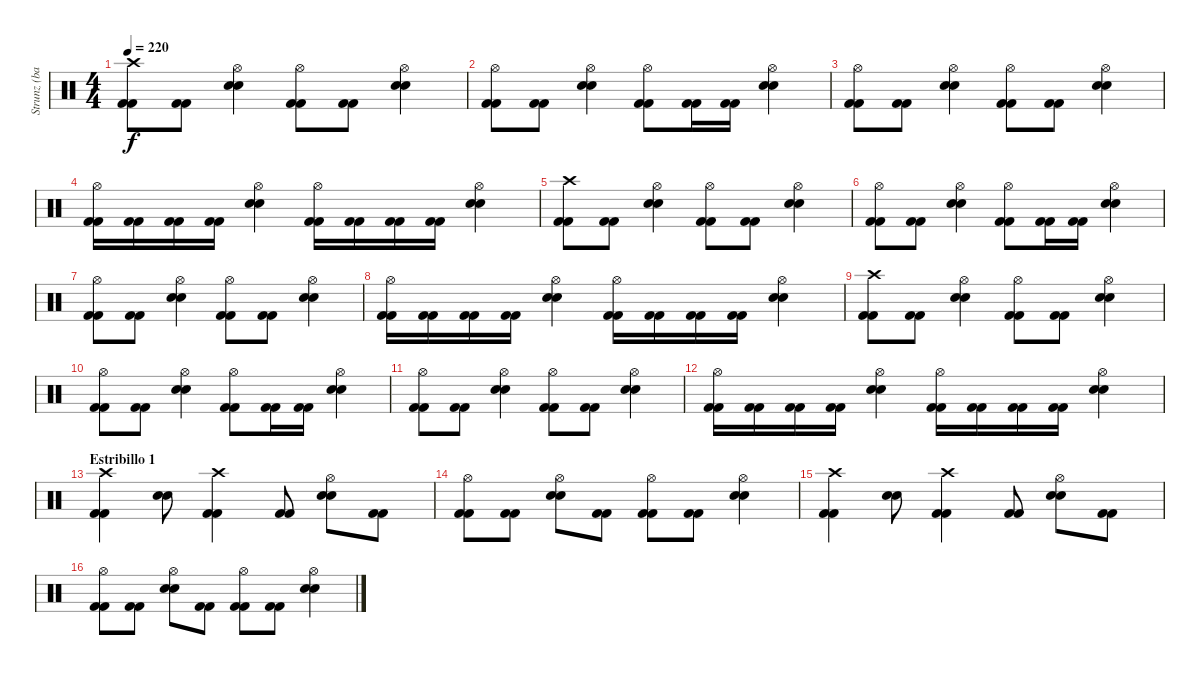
\track ("Strunz (bateria)" "Strunz (ba") {instrument percussion}
\staff {score}
\articulation defaults
\ts (4 4)
\tempo 220
\clef neutral
\ks c
("Crash high (hit)" "Kick (hit) 2" "Kick (hit) 2").8{dy f} ("Kick (hit) 2" "Kick (hit) 2").8 ("Hi-Hat (open)" "Snare (hit) 2" "Snare (hit) 2").4 ("Hi-Hat (open)" "Kick (hit) 2" "Kick (hit) 2").8 ("Kick (hit) 2" "Kick (hit) 2").8 ("Hi-Hat (open)" "Snare (hit) 2" "Snare (hit) 2").4 |
("Hi-Hat (open)" "Kick (hit) 2" "Kick (hit) 2").8 ("Kick (hit) 2" "Kick (hit) 2").8 ("Hi-Hat (open)" "Snare (hit) 2" "Snare (hit) 2").4 ("Hi-Hat (open)" "Kick (hit) 2" "Kick (hit) 2").8 ("Kick (hit) 2" "Kick (hit) 2").16 ("Kick (hit) 2" "Kick (hit) 2").16 ("Hi-Hat (open)" "Snare (hit) 2" "Snare (hit) 2").4 |
("Hi-Hat (open)" "Kick (hit) 2" "Kick (hit) 2").8 ("Kick (hit) 2" "Kick (hit) 2").8 ("Hi-Hat (open)" "Snare (hit) 2" "Snare (hit) 2").4 ("Hi-Hat (open)" "Kick (hit) 2" "Kick (hit) 2").8 ("Kick (hit) 2" "Kick (hit) 2").8 ("Hi-Hat (open)" "Snare (hit) 2" "Snare (hit) 2").4 |
("Hi-Hat (open)" "Kick (hit) 2" "Kick (hit) 2").16 ("Kick (hit) 2" "Kick (hit) 2").16 ("Kick (hit) 2" "Kick (hit) 2").16 ("Kick (hit) 2" "Kick (hit) 2").16 ("Hi-Hat (open)" "Snare (hit) 2" "Snare (hit) 2").4 ("Hi-Hat (open)" "Kick (hit) 2" "Kick (hit) 2").16 ("Kick (hit) 2" "Kick (hit) 2").16 ("Kick (hit) 2" "Kick (hit) 2").16 ("Kick (hit) 2" "Kick (hit) 2").16 ("Hi-Hat (open)" "Snare (hit) 2" "Snare (hit) 2").4 |
("Crash high (hit)" "Kick (hit) 2" "Kick (hit) 2").8 ("Kick (hit) 2" "Kick (hit) 2").8 ("Hi-Hat (open)" "Snare (hit) 2" "Snare (hit) 2").4 ("Hi-Hat (open)" "Kick (hit) 2" "Kick (hit) 2").8 ("Kick (hit) 2" "Kick (hit) 2").8 ("Hi-Hat (open)" "Snare (hit) 2" "Snare (hit) 2").4 |
("Hi-Hat (open)" "Kick (hit) 2" "Kick (hit) 2").8 ("Kick (hit) 2" "Kick (hit) 2").8 ("Hi-Hat (open)" "Snare (hit) 2" "Snare (hit) 2").4 ("Hi-Hat (open)" "Kick (hit) 2" "Kick (hit) 2").8 ("Kick (hit) 2" "Kick (hit) 2").16 ("Kick (hit) 2" "Kick (hit) 2").16 ("Hi-Hat (open)" "Snare (hit) 2" "Snare (hit) 2").4 |
("Hi-Hat (open)" "Kick (hit) 2" "Kick (hit) 2").8 ("Kick (hit) 2" "Kick (hit) 2").8 ("Hi-Hat (open)" "Snare (hit) 2" "Snare (hit) 2").4 ("Hi-Hat (open)" "Kick (hit) 2" "Kick (hit) 2").8 ("Kick (hit) 2" "Kick (hit) 2").8 ("Hi-Hat (open)" "Snare (hit) 2" "Snare (hit) 2").4 |
("Hi-Hat (open)" "Kick (hit) 2" "Kick (hit) 2").16 ("Kick (hit) 2" "Kick (hit) 2").16 ("Kick (hit) 2" "Kick (hit) 2").16 ("Kick (hit) 2" "Kick (hit) 2").16 ("Hi-Hat (open)" "Snare (hit) 2" "Snare (hit) 2").4 ("Hi-Hat (open)" "Kick (hit) 2" "Kick (hit) 2").16 ("Kick (hit) 2" "Kick (hit) 2").16 ("Kick (hit) 2" "Kick (hit) 2").16 ("Kick (hit) 2" "Kick (hit) 2").16 ("Hi-Hat (open)" "Snare (hit) 2" "Snare (hit) 2").4 |
("Crash high (hit)" "Kick (hit) 2" "Kick (hit) 2").8 ("Kick (hit) 2" "Kick (hit) 2").8 ("Hi-Hat (open)" "Snare (hit) 2" "Snare (hit) 2").4 ("Hi-Hat (open)" "Kick (hit) 2" "Kick (hit) 2").8 ("Kick (hit) 2" "Kick (hit) 2").8 ("Hi-Hat (open)" "Snare (hit) 2" "Snare (hit) 2").4 |
("Hi-Hat (open)" "Kick (hit) 2" "Kick (hit) 2").8 ("Kick (hit) 2" "Kick (hit) 2").8 ("Hi-Hat (open)" "Snare (hit) 2" "Snare (hit) 2").4 ("Hi-Hat (open)" "Kick (hit) 2" "Kick (hit) 2").8 ("Kick (hit) 2" "Kick (hit) 2").16 ("Kick (hit) 2" "Kick (hit) 2").16 ("Hi-Hat (open)" "Snare (hit) 2" "Snare (hit) 2").4 |
("Hi-Hat (open)" "Kick (hit) 2" "Kick (hit) 2").8 ("Kick (hit) 2" "Kick (hit) 2").8 ("Hi-Hat (open)" "Snare (hit) 2" "Snare (hit) 2").4 ("Hi-Hat (open)" "Kick (hit) 2" "Kick (hit) 2").8 ("Kick (hit) 2" "Kick (hit) 2").8 ("Hi-Hat (open)" "Snare (hit) 2" "Snare (hit) 2").4 |
("Hi-Hat (open)" "Kick (hit) 2" "Kick (hit) 2").16 ("Kick (hit) 2" "Kick (hit) 2").16 ("Kick (hit) 2" "Kick (hit) 2").16 ("Kick (hit) 2" "Kick (hit) 2").16 ("Hi-Hat (open)" "Snare (hit) 2" "Snare (hit) 2").4 ("Hi-Hat (open)" "Kick (hit) 2" "Kick (hit) 2").16 ("Kick (hit) 2" "Kick (hit) 2").16 ("Kick (hit) 2" "Kick (hit) 2").16 ("Kick (hit) 2" "Kick (hit) 2").16 ("Hi-Hat (open)" "Snare (hit) 2" "Snare (hit) 2").4 |
\section ("" "Estribillo 1")
("Crash high (hit)" "Kick (hit) 2" "Kick (hit) 2").4 ("Snare (hit) 2" "Snare (hit) 2").8 ("Crash high (hit)" "Kick (hit) 2" "Kick (hit) 2").4 ("Kick (hit) 2" "Kick (hit) 2").8 ("Hi-Hat (open)" "Snare (hit) 2" "Snare (hit) 2").8 ("Kick (hit) 2" "Kick (hit) 2").8 |
("Hi-Hat (open)" "Kick (hit) 2" "Kick (hit) 2").8 ("Kick (hit) 2" "Kick (hit) 2").8 ("Hi-Hat (open)" "Snare (hit) 2" "Snare (hit) 2").8 ("Kick (hit) 2" "Kick (hit) 2").8 ("Hi-Hat (open)" "Kick (hit) 2" "Kick (hit) 2").8 ("Kick (hit) 2" "Kick (hit) 2").8 ("Hi-Hat (open)" "Snare (hit) 2" "Snare (hit) 2").4 |
("Crash high (hit)" "Kick (hit) 2" "Kick (hit) 2").4 ("Snare (hit) 2" "Snare (hit) 2").8 ("Crash high (hit)" "Kick (hit) 2" "Kick (hit) 2").4 ("Kick (hit) 2" "Kick (hit) 2").8 ("Hi-Hat (open)" "Snare (hit) 2" "Snare (hit) 2").8 ("Kick (hit) 2" "Kick (hit) 2").8 |
("Hi-Hat (open)" "Kick (hit) 2" "Kick (hit) 2").8 ("Kick (hit) 2" "Kick (hit) 2").8 ("Hi-Hat (open)" "Snare (hit) 2" "Snare (hit) 2").8 ("Kick (hit) 2" "Kick (hit) 2").8 ("Hi-Hat (open)" "Kick (hit) 2" "Kick (hit) 2").8 ("Kick (hit) 2" "Kick (hit) 2").8 ("Hi-Hat (open)" "Snare (hit) 2" "Snare (hit) 2").4
